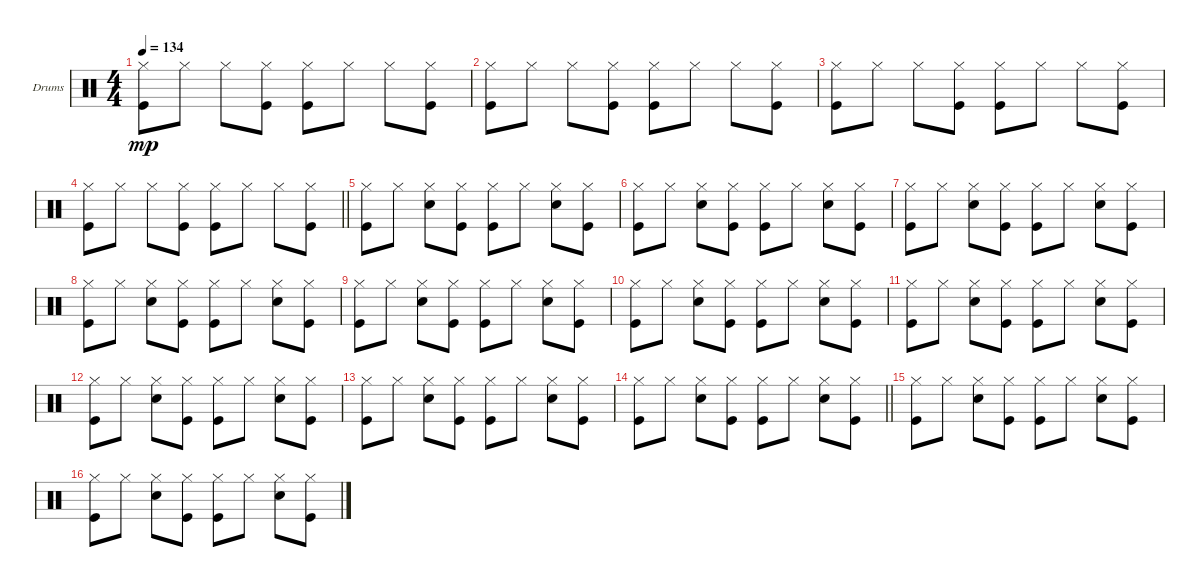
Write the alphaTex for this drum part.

\bracketExtendMode groupsimilarinstruments
\firstSystemTrackNameOrientation horizontal
\otherSystemsTrackNameOrientation horizontal
\track ("Drumkit" "Drums") {instrument percussion}
\staff {score}
\articulation defaults
\ts (4 4)
\tempo 134
\clef neutral
\ks c
("Kick (hit)" "Hi-Hat (closed)").8{dy mp} "Hi-Hat (closed)".8 "Hi-Hat (closed)".8 ("Kick (hit)" "Hi-Hat (closed)").8 ("Kick (hit)" "Hi-Hat (closed)").8 "Hi-Hat (closed)".8 "Hi-Hat (closed)".8 ("Hi-Hat (closed)" "Kick (hit)").8 |
("Kick (hit)" "Hi-Hat (closed)").8 "Hi-Hat (closed)".8 "Hi-Hat (closed)".8 ("Kick (hit)" "Hi-Hat (closed)").8 ("Kick (hit)" "Hi-Hat (closed)").8 "Hi-Hat (closed)".8 "Hi-Hat (closed)".8 ("Hi-Hat (closed)" "Kick (hit)").8 |
("Kick (hit)" "Hi-Hat (closed)").8 "Hi-Hat (closed)".8 "Hi-Hat (closed)".8 ("Kick (hit)" "Hi-Hat (closed)").8 ("Kick (hit)" "Hi-Hat (closed)").8 "Hi-Hat (closed)".8 "Hi-Hat (closed)".8 ("Hi-Hat (closed)" "Kick (hit)").8 |
\barLineRight lightlight
("Kick (hit)" "Hi-Hat (closed)").8 "Hi-Hat (closed)".8 "Hi-Hat (closed)".8 ("Kick (hit)" "Hi-Hat (closed)").8 ("Kick (hit)" "Hi-Hat (closed)").8 "Hi-Hat (closed)".8 "Hi-Hat (closed)".8 ("Hi-Hat (closed)" "Kick (hit)").8 |
("Kick (hit)" "Hi-Hat (closed)").8 "Hi-Hat (closed)".8 ("Snare (hit) 2" "Hi-Hat (closed)").8 ("Kick (hit)" "Hi-Hat (closed)").8 ("Kick (hit)" "Hi-Hat (closed)").8 "Hi-Hat (closed)".8 ("Snare (hit) 2" "Hi-Hat (closed)").8 ("Hi-Hat (closed)" "Kick (hit)").8 |
("Kick (hit)" "Hi-Hat (closed)").8 "Hi-Hat (closed)".8 ("Snare (hit) 2" "Hi-Hat (closed)").8 ("Kick (hit)" "Hi-Hat (closed)").8 ("Kick (hit)" "Hi-Hat (closed)").8 "Hi-Hat (closed)".8 ("Snare (hit) 2" "Hi-Hat (closed)").8 ("Hi-Hat (closed)" "Kick (hit)").8 |
("Kick (hit)" "Hi-Hat (closed)").8 "Hi-Hat (closed)".8 ("Snare (hit) 2" "Hi-Hat (closed)").8 ("Kick (hit)" "Hi-Hat (closed)").8 ("Kick (hit)" "Hi-Hat (closed)").8 "Hi-Hat (closed)".8 ("Snare (hit) 2" "Hi-Hat (closed)").8 ("Hi-Hat (closed)" "Kick (hit)").8 |
("Kick (hit)" "Hi-Hat (closed)").8 "Hi-Hat (closed)".8 ("Snare (hit) 2" "Hi-Hat (closed)").8 ("Kick (hit)" "Hi-Hat (closed)").8 ("Kick (hit)" "Hi-Hat (closed)").8 "Hi-Hat (closed)".8 ("Snare (hit) 2" "Hi-Hat (closed)").8 ("Hi-Hat (closed)" "Kick (hit)").8 |
("Kick (hit)" "Hi-Hat (closed)").8 "Hi-Hat (closed)".8 ("Snare (hit) 2" "Hi-Hat (closed)").8 ("Kick (hit)" "Hi-Hat (closed)").8 ("Kick (hit)" "Hi-Hat (closed)").8 "Hi-Hat (closed)".8 ("Snare (hit) 2" "Hi-Hat (closed)").8 ("Hi-Hat (closed)" "Kick (hit)").8 |
("Kick (hit)" "Hi-Hat (closed)").8 "Hi-Hat (closed)".8 ("Snare (hit) 2" "Hi-Hat (closed)").8 ("Kick (hit)" "Hi-Hat (closed)").8 ("Kick (hit)" "Hi-Hat (closed)").8 "Hi-Hat (closed)".8 ("Snare (hit) 2" "Hi-Hat (closed)").8 ("Hi-Hat (closed)" "Kick (hit)").8 |
("Kick (hit)" "Hi-Hat (closed)").8 "Hi-Hat (closed)".8 ("Snare (hit) 2" "Hi-Hat (closed)").8 ("Kick (hit)" "Hi-Hat (closed)").8 ("Kick (hit)" "Hi-Hat (closed)").8 "Hi-Hat (closed)".8 ("Snare (hit) 2" "Hi-Hat (closed)").8 ("Hi-Hat (closed)" "Kick (hit)").8 |
("Kick (hit)" "Hi-Hat (closed)").8 "Hi-Hat (closed)".8 ("Snare (hit) 2" "Hi-Hat (closed)").8 ("Kick (hit)" "Hi-Hat (closed)").8 ("Kick (hit)" "Hi-Hat (closed)").8 "Hi-Hat (closed)".8 ("Snare (hit) 2" "Hi-Hat (closed)").8 ("Hi-Hat (closed)" "Kick (hit)").8 |
("Kick (hit)" "Hi-Hat (closed)").8 "Hi-Hat (closed)".8 ("Snare (hit) 2" "Hi-Hat (closed)").8 ("Kick (hit)" "Hi-Hat (closed)").8 ("Kick (hit)" "Hi-Hat (closed)").8 "Hi-Hat (closed)".8 ("Snare (hit) 2" "Hi-Hat (closed)").8 ("Hi-Hat (closed)" "Kick (hit)").8 |
\barLineRight lightlight
("Kick (hit)" "Hi-Hat (closed)").8 "Hi-Hat (closed)".8 ("Snare (hit) 2" "Hi-Hat (closed)").8 ("Kick (hit)" "Hi-Hat (closed)").8 ("Kick (hit)" "Hi-Hat (closed)").8 "Hi-Hat (closed)".8 ("Snare (hit) 2" "Hi-Hat (closed)").8 ("Hi-Hat (closed)" "Kick (hit)").8 |
("Kick (hit)" "Hi-Hat (closed)").8 "Hi-Hat (closed)".8 ("Snare (hit) 2" "Hi-Hat (closed)").8 ("Kick (hit)" "Hi-Hat (closed)").8 ("Kick (hit)" "Hi-Hat (closed)").8 "Hi-Hat (closed)".8 ("Snare (hit) 2" "Hi-Hat (closed)").8 ("Hi-Hat (closed)" "Kick (hit)").8 |
("Kick (hit)" "Hi-Hat (closed)").8 "Hi-Hat (closed)".8 ("Snare (hit) 2" "Hi-Hat (closed)").8 ("Kick (hit)" "Hi-Hat (closed)").8 ("Kick (hit)" "Hi-Hat (closed)").8 "Hi-Hat (closed)".8 ("Snare (hit) 2" "Hi-Hat (closed)").8 ("Hi-Hat (closed)" "Kick (hit)").8
